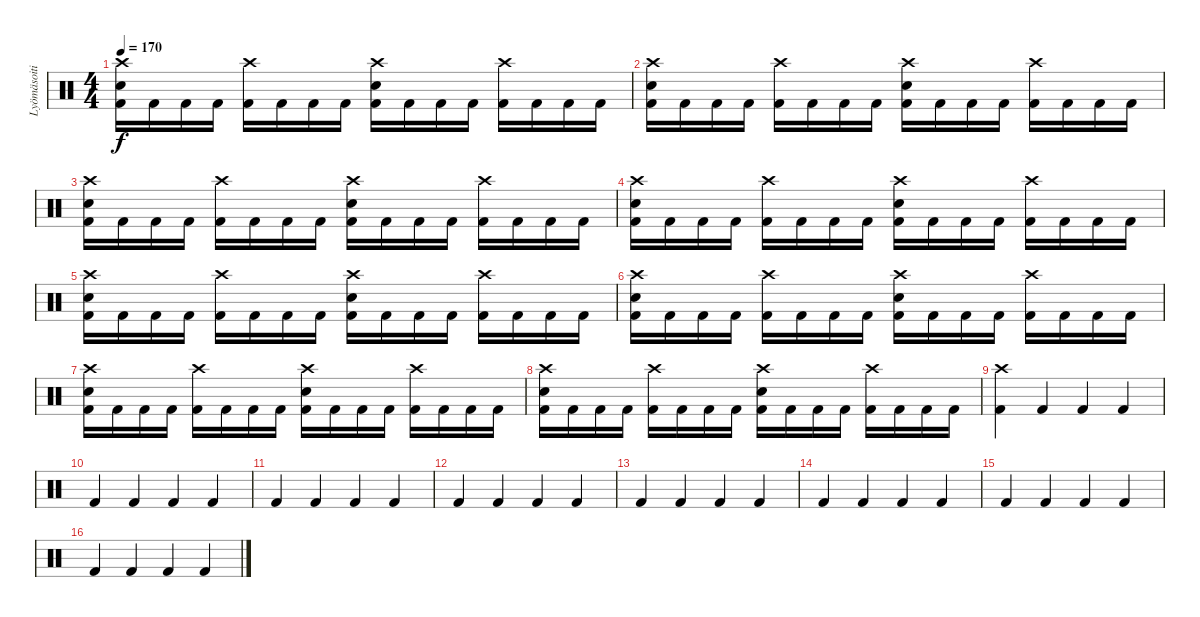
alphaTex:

\track ("Lyömäsoitin" "Lyömäsoiti") {instrument percussion}
\staff {score}
\articulation defaults
\ts (4 4)
\tempo 170
\clef neutral
\ks c
("Kick (hit) 2" "Electric Snare (hit)" "Crash high (hit)").16{dy f} "Kick (hit) 2".16 "Kick (hit) 2".16 "Kick (hit) 2".16 ("Kick (hit) 2" "Crash high (hit)").16 "Kick (hit) 2".16 "Kick (hit) 2".16 "Kick (hit) 2".16 ("Kick (hit) 2" "Electric Snare (hit)" "Crash high (hit)").16 "Kick (hit) 2".16 "Kick (hit) 2".16 "Kick (hit) 2".16 ("Kick (hit) 2" "Crash high (hit)").16 "Kick (hit) 2".16 "Kick (hit) 2".16 "Kick (hit) 2".16 |
("Kick (hit) 2" "Electric Snare (hit)" "Crash high (hit)").16 "Kick (hit) 2".16 "Kick (hit) 2".16 "Kick (hit) 2".16 ("Kick (hit) 2" "Crash high (hit)").16 "Kick (hit) 2".16 "Kick (hit) 2".16 "Kick (hit) 2".16 ("Kick (hit) 2" "Electric Snare (hit)" "Crash high (hit)").16 "Kick (hit) 2".16 "Kick (hit) 2".16 "Kick (hit) 2".16 ("Kick (hit) 2" "Crash high (hit)").16 "Kick (hit) 2".16 "Kick (hit) 2".16 "Kick (hit) 2".16 |
("Kick (hit) 2" "Electric Snare (hit)" "Crash high (hit)").16 "Kick (hit) 2".16 "Kick (hit) 2".16 "Kick (hit) 2".16 ("Kick (hit) 2" "Crash high (hit)").16 "Kick (hit) 2".16 "Kick (hit) 2".16 "Kick (hit) 2".16 ("Kick (hit) 2" "Electric Snare (hit)" "Crash high (hit)").16 "Kick (hit) 2".16 "Kick (hit) 2".16 "Kick (hit) 2".16 ("Kick (hit) 2" "Crash high (hit)").16 "Kick (hit) 2".16 "Kick (hit) 2".16 "Kick (hit) 2".16 |
("Kick (hit) 2" "Electric Snare (hit)" "Crash high (hit)").16 "Kick (hit) 2".16 "Kick (hit) 2".16 "Kick (hit) 2".16 ("Kick (hit) 2" "Crash high (hit)").16 "Kick (hit) 2".16 "Kick (hit) 2".16 "Kick (hit) 2".16 ("Kick (hit) 2" "Electric Snare (hit)" "Crash high (hit)").16 "Kick (hit) 2".16 "Kick (hit) 2".16 "Kick (hit) 2".16 ("Kick (hit) 2" "Crash high (hit)").16 "Kick (hit) 2".16 "Kick (hit) 2".16 "Kick (hit) 2".16 |
("Kick (hit) 2" "Electric Snare (hit)" "Crash high (hit)").16 "Kick (hit) 2".16 "Kick (hit) 2".16 "Kick (hit) 2".16 ("Kick (hit) 2" "Crash high (hit)").16 "Kick (hit) 2".16 "Kick (hit) 2".16 "Kick (hit) 2".16 ("Kick (hit) 2" "Electric Snare (hit)" "Crash high (hit)").16 "Kick (hit) 2".16 "Kick (hit) 2".16 "Kick (hit) 2".16 ("Kick (hit) 2" "Crash high (hit)").16 "Kick (hit) 2".16 "Kick (hit) 2".16 "Kick (hit) 2".16 |
("Kick (hit) 2" "Electric Snare (hit)" "Crash high (hit)").16 "Kick (hit) 2".16 "Kick (hit) 2".16 "Kick (hit) 2".16 ("Kick (hit) 2" "Crash high (hit)").16 "Kick (hit) 2".16 "Kick (hit) 2".16 "Kick (hit) 2".16 ("Kick (hit) 2" "Electric Snare (hit)" "Crash high (hit)").16 "Kick (hit) 2".16 "Kick (hit) 2".16 "Kick (hit) 2".16 ("Kick (hit) 2" "Crash high (hit)").16 "Kick (hit) 2".16 "Kick (hit) 2".16 "Kick (hit) 2".16 |
("Kick (hit) 2" "Electric Snare (hit)" "Crash high (hit)").16 "Kick (hit) 2".16 "Kick (hit) 2".16 "Kick (hit) 2".16 ("Kick (hit) 2" "Crash high (hit)").16 "Kick (hit) 2".16 "Kick (hit) 2".16 "Kick (hit) 2".16 ("Kick (hit) 2" "Electric Snare (hit)" "Crash high (hit)").16 "Kick (hit) 2".16 "Kick (hit) 2".16 "Kick (hit) 2".16 ("Kick (hit) 2" "Crash high (hit)").16 "Kick (hit) 2".16 "Kick (hit) 2".16 "Kick (hit) 2".16 |
("Kick (hit) 2" "Electric Snare (hit)" "Crash high (hit)").16 "Kick (hit) 2".16 "Kick (hit) 2".16 "Kick (hit) 2".16 ("Kick (hit) 2" "Crash high (hit)").16 "Kick (hit) 2".16 "Kick (hit) 2".16 "Kick (hit) 2".16 ("Kick (hit) 2" "Electric Snare (hit)" "Crash high (hit)").16 "Kick (hit) 2".16 "Kick (hit) 2".16 "Kick (hit) 2".16 ("Kick (hit) 2" "Crash high (hit)").16 "Kick (hit) 2".16 "Kick (hit) 2".16 "Kick (hit) 2".16 |
("Kick (hit) 2" "Crash high (hit)").4 "Kick (hit) 2".4 "Kick (hit) 2".4 "Kick (hit) 2".4 |
"Kick (hit) 2".4 "Kick (hit) 2".4 "Kick (hit) 2".4 "Kick (hit) 2".4 |
"Kick (hit) 2".4 "Kick (hit) 2".4 "Kick (hit) 2".4 "Kick (hit) 2".4 |
"Kick (hit) 2".4 "Kick (hit) 2".4 "Kick (hit) 2".4 "Kick (hit) 2".4 |
"Kick (hit) 2".4 "Kick (hit) 2".4 "Kick (hit) 2".4 "Kick (hit) 2".4 |
"Kick (hit) 2".4 "Kick (hit) 2".4 "Kick (hit) 2".4 "Kick (hit) 2".4 |
"Kick (hit) 2".4 "Kick (hit) 2".4 "Kick (hit) 2".4 "Kick (hit) 2".4 |
"Kick (hit) 2".4 "Kick (hit) 2".4 "Kick (hit) 2".4 "Kick (hit) 2".4
